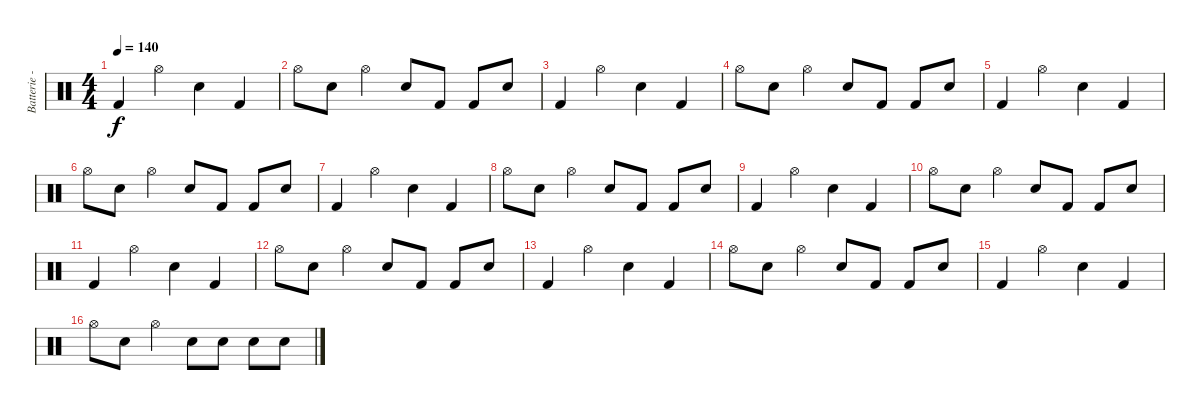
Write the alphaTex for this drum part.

\track ("Batterie - Anders Johansson" "Batterie -") {instrument percussion}
\staff {score}
\articulation defaults
\ts (4 4)
\tempo 140
\clef neutral
\ks c "Kick (hit) 2".4{dy f} "Hi-Hat (open)".4 "Electric Snare (hit)".4 "Kick (hit) 2".4
|
"Hi-Hat (open)".8 "Electric Snare (hit)".8 "Hi-Hat (open)".4 "Electric Snare (hit)".8 "Kick (hit) 2".8 "Kick (hit) 2".8 "Electric Snare (hit)".8 |
"Kick (hit) 2".4 "Hi-Hat (open)".4 "Electric Snare (hit)".4 "Kick (hit) 2".4 |
"Hi-Hat (open)".8 "Electric Snare (hit)".8 "Hi-Hat (open)".4 "Electric Snare (hit)".8 "Kick (hit) 2".8 "Kick (hit) 2".8 "Electric Snare (hit)".8 |
"Kick (hit) 2".4 "Hi-Hat (open)".4 "Electric Snare (hit)".4 "Kick (hit) 2".4 |
"Hi-Hat (open)".8 "Electric Snare (hit)".8 "Hi-Hat (open)".4 "Electric Snare (hit)".8 "Kick (hit) 2".8 "Kick (hit) 2".8 "Electric Snare (hit)".8 |
"Kick (hit) 2".4 "Hi-Hat (open)".4 "Electric Snare (hit)".4 "Kick (hit) 2".4 |
"Hi-Hat (open)".8 "Electric Snare (hit)".8 "Hi-Hat (open)".4 "Electric Snare (hit)".8 "Kick (hit) 2".8 "Kick (hit) 2".8 "Electric Snare (hit)".8 |
"Kick (hit) 2".4 "Hi-Hat (open)".4 "Electric Snare (hit)".4 "Kick (hit) 2".4 |
"Hi-Hat (open)".8 "Electric Snare (hit)".8 "Hi-Hat (open)".4 "Electric Snare (hit)".8 "Kick (hit) 2".8 "Kick (hit) 2".8 "Electric Snare (hit)".8 |
"Kick (hit) 2".4 "Hi-Hat (open)".4 "Electric Snare (hit)".4 "Kick (hit) 2".4 |
"Hi-Hat (open)".8 "Electric Snare (hit)".8 "Hi-Hat (open)".4 "Electric Snare (hit)".8 "Kick (hit) 2".8 "Kick (hit) 2".8 "Electric Snare (hit)".8 |
"Kick (hit) 2".4 "Hi-Hat (open)".4 "Electric Snare (hit)".4 "Kick (hit) 2".4 |
"Hi-Hat (open)".8 "Electric Snare (hit)".8 "Hi-Hat (open)".4 "Electric Snare (hit)".8 "Kick (hit) 2".8 "Kick (hit) 2".8 "Electric Snare (hit)".8 |
"Kick (hit) 2".4 "Hi-Hat (open)".4 "Electric Snare (hit)".4 "Kick (hit) 2".4 |
"Hi-Hat (open)".8 "Electric Snare (hit)".8 "Hi-Hat (open)".4 "Electric Snare (hit)".8 "Electric Snare (hit)".8 "Electric Snare (hit)".8 "Electric Snare (hit)".8
